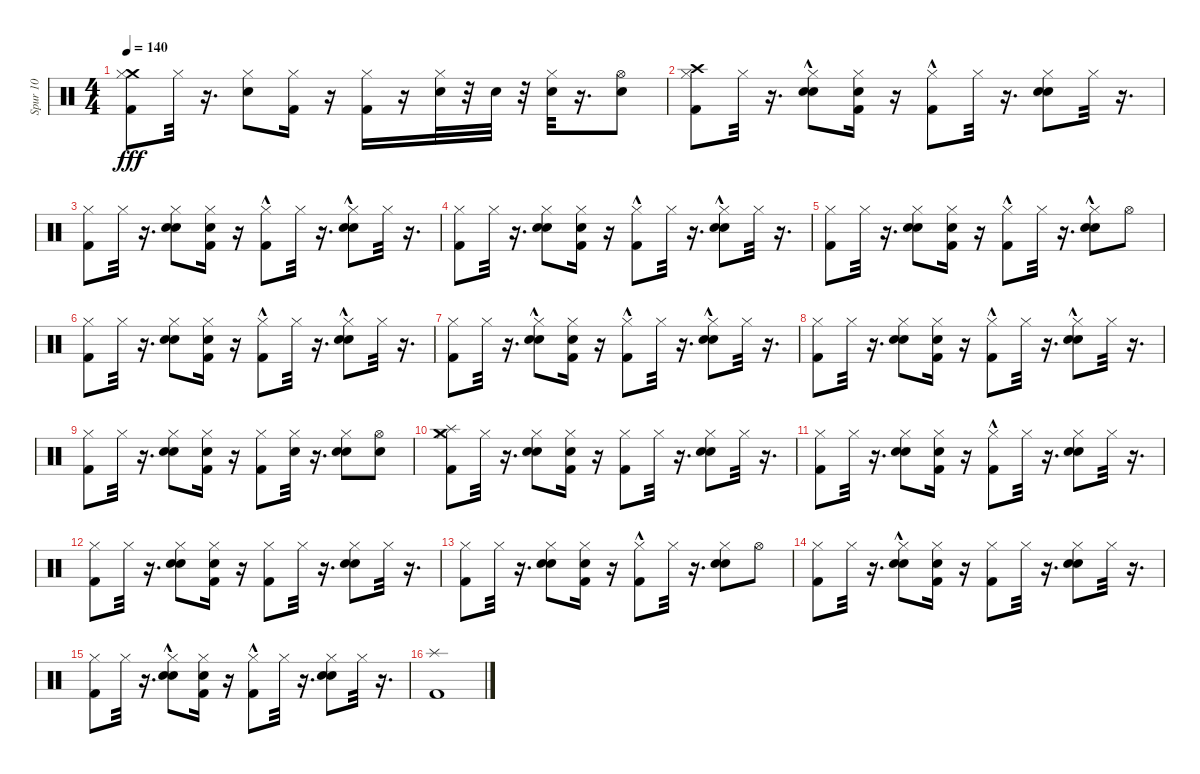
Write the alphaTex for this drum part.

\track ("Spur 10" "Spur 10") {instrument percussion}
\staff {score}
\articulation defaults
\ts (4 4)
\tempo 140
\clef neutral
\ks c
("Kick (hit) 2" "Crash medium (hit)" "Hi-Hat (closed)").8{dy fff} "Hi-Hat (closed)".32 r.16{d} ("Snare (hit) 2" "Hi-Hat (closed)").8 ("Kick (hit) 2" "Hi-Hat (closed)").16 r.16 ("Kick (hit) 2" "Hi-Hat (closed)").16 r.16 ("Snare (hit) 2" "Hi-Hat (closed)").32 r.32 "Snare (hit) 2".32 r.32 ("Snare (hit) 2" "Hi-Hat (closed)").32 r.16{d} ("Snare (hit) 2" "Hi-Hat (open)").8 |
("Kick (hit) 2" "Crash high (hit)" "Hi-Hat (closed)").8 "Hi-Hat (closed)".32 r.16{d} ("Snare (hit) 2"{hac} "Hand Clap (hit)" "Hi-Hat (closed)").8 ("Kick (hit) 2" "Hand Clap (hit)" "Hi-Hat (closed)").16 r.16 ("Kick (hit) 2"{hac} "Hi-Hat (closed)").8 "Hi-Hat (closed)".32 r.16{d} ("Hand Clap (hit)" "Snare (hit) 2" "Hi-Hat (closed)").8 "Hi-Hat (closed)".32 r.16{d} |
("Kick (hit) 2" "Hi-Hat (closed)").8 "Hi-Hat (closed)".32 r.16{d} ("Hand Clap (hit)" "Snare (hit) 2" "Hi-Hat (closed)").8 ("Hand Clap (hit)" "Kick (hit) 2" "Hi-Hat (closed)").16 r.16 ("Kick (hit) 2"{hac} "Hi-Hat (closed)").8 "Hi-Hat (closed)".32 r.16{d} ("Snare (hit) 2" "Hand Clap (hit)"{hac} "Hi-Hat (closed)").8 "Hi-Hat (closed)".32 r.16{d} |
("Kick (hit) 2" "Hi-Hat (closed)").8 "Hi-Hat (closed)".32 r.16{d} ("Snare (hit) 2" "Hand Clap (hit)" "Hi-Hat (closed)").8 ("Hand Clap (hit)" "Kick (hit) 2" "Hi-Hat (closed)").16 r.16 ("Kick (hit) 2"{hac} "Hi-Hat (closed)").8 "Hi-Hat (closed)".32 r.16{d} ("Snare (hit) 2" "Hand Clap (hit)"{hac} "Hi-Hat (closed)").8 "Hi-Hat (closed)".32 r.16{d} |
("Kick (hit) 2" "Hi-Hat (closed)").8 "Hi-Hat (closed)".32 r.16{d} ("Hand Clap (hit)" "Snare (hit) 2" "Hi-Hat (closed)").8 ("Hand Clap (hit)" "Kick (hit) 2" "Hi-Hat (closed)").16 r.16 ("Kick (hit) 2"{hac} "Hi-Hat (closed)").8 "Hi-Hat (closed)".32 r.16{d} ("Snare (hit) 2" "Hand Clap (hit)"{hac} "Hi-Hat (closed)").8 "Hi-Hat (open)".8 |
("Kick (hit) 2" "Hi-Hat (closed)").8 "Hi-Hat (closed)".32 r.16{d} ("Snare (hit) 2" "Hand Clap (hit)" "Hi-Hat (closed)").8 ("Kick (hit) 2" "Hand Clap (hit)" "Hi-Hat (closed)").16 r.16 ("Kick (hit) 2"{hac} "Hi-Hat (closed)").8 "Hi-Hat (closed)".32 r.16{d} ("Snare (hit) 2" "Hand Clap (hit)"{hac} "Hi-Hat (closed)").8 "Hi-Hat (closed)".32 r.16{d} |
("Kick (hit) 2" "Hi-Hat (closed)").8 "Hi-Hat (closed)".32 r.16{d} ("Hand Clap (hit)" "Snare (hit) 2"{hac} "Hi-Hat (closed)").8 ("Hand Clap (hit)" "Kick (hit) 2" "Hi-Hat (closed)").16 r.16 ("Kick (hit) 2"{hac} "Hi-Hat (closed)").8 "Hi-Hat (closed)".32 r.16{d} ("Snare (hit) 2" "Hand Clap (hit)"{hac} "Hi-Hat (closed)").8 "Hi-Hat (closed)".32 r.16{d} |
("Kick (hit) 2" "Hi-Hat (closed)").8 "Hi-Hat (closed)".32 r.16{d} ("Snare (hit) 2" "Hand Clap (hit)" "Hi-Hat (closed)").8 ("Kick (hit) 2" "Hand Clap (hit)" "Hi-Hat (closed)").16 r.16 ("Kick (hit) 2"{hac} "Hi-Hat (closed)").8 "Hi-Hat (closed)".32 r.16{d} ("Snare (hit) 2" "Hand Clap (hit)"{hac} "Hi-Hat (closed)").8 "Hi-Hat (closed)".32 r.16{d} |
("Kick (hit) 2" "Hi-Hat (closed)").8 "Hi-Hat (closed)".32 r.16{d} ("Hand Clap (hit)" "Snare (hit) 2" "Hi-Hat (closed)").8 ("Hand Clap (hit)" "Kick (hit) 2" "Hi-Hat (closed)").16 r.16 ("Kick (hit) 2" "Hi-Hat (closed)").8 ("Snare (hit) 2" "Hi-Hat (closed)").32 r.16{d} ("Hand Clap (hit)" "Snare (hit) 2" "Hi-Hat (closed)").8 ("Snare (hit) 2" "Hi-Hat (open)").8 |
("Kick (hit) 2" "Crash medium (hit)" "Splash (hit)" "Hi-Hat (closed)").8 "Hi-Hat (closed)".32 r.16{d} ("Snare (hit) 2" "Hand Clap (hit)" "Hi-Hat (closed)").8 ("Hand Clap (hit)" "Kick (hit) 2" "Hi-Hat (closed)").16 r.16 ("Kick (hit) 2" "Hi-Hat (closed)").8 "Hi-Hat (closed)".32 r.16{d} ("Hand Clap (hit)" "Snare (hit) 2" "Hi-Hat (closed)").8 "Hi-Hat (closed)".32 r.16{d} |
("Kick (hit) 2" "Hi-Hat (closed)").8 "Hi-Hat (closed)".32 r.16{d} ("Hand Clap (hit)" "Snare (hit) 2" "Hi-Hat (closed)").8 ("Hand Clap (hit)" "Kick (hit) 2" "Hi-Hat (closed)").16 r.16 ("Kick (hit) 2"{hac} "Hi-Hat (closed)").8 "Hi-Hat (closed)".32 r.16{d} ("Snare (hit) 2" "Hand Clap (hit)" "Hi-Hat (closed)").8 "Hi-Hat (closed)".32 r.16{d} |
("Kick (hit) 2" "Hi-Hat (closed)").8 "Hi-Hat (closed)".32 r.16{d} ("Hand Clap (hit)" "Snare (hit) 2" "Hi-Hat (closed)").8 ("Hand Clap (hit)" "Kick (hit) 2" "Hi-Hat (closed)").16 r.16 ("Kick (hit) 2" "Hi-Hat (closed)").8 "Hi-Hat (closed)".32 r.16{d} ("Hand Clap (hit)" "Snare (hit) 2" "Hi-Hat (closed)").8 "Hi-Hat (closed)".32 r.16{d} |
("Kick (hit) 2" "Hi-Hat (closed)").8 "Hi-Hat (closed)".32 r.16{d} ("Hand Clap (hit)" "Snare (hit) 2" "Hi-Hat (closed)").8 ("Hand Clap (hit)" "Kick (hit) 2" "Hi-Hat (closed)").16 r.16 ("Kick (hit) 2"{hac} "Hi-Hat (closed)").8 "Hi-Hat (closed)".32 r.16{d} ("Snare (hit) 2" "Hand Clap (hit)" "Hi-Hat (closed)").8 "Hi-Hat (open)".8 |
("Kick (hit) 2" "Hi-Hat (closed)").8 "Hi-Hat (closed)".32 r.16{d} ("Hand Clap (hit)" "Snare (hit) 2"{hac} "Hi-Hat (closed)").8 ("Hand Clap (hit)" "Kick (hit) 2" "Hi-Hat (closed)").16 r.16 ("Kick (hit) 2" "Hi-Hat (closed)").8 "Hi-Hat (closed)".32 r.16{d} ("Hand Clap (hit)" "Snare (hit) 2" "Hi-Hat (closed)").8 "Hi-Hat (closed)".32 r.16{d} |
("Kick (hit) 2" "Hi-Hat (closed)").8 "Hi-Hat (closed)".32 r.16{d} ("Hand Clap (hit)" "Snare (hit) 2"{hac} "Hi-Hat (closed)").8 ("Hand Clap (hit)" "Kick (hit) 2" "Hi-Hat (closed)").16 r.16 ("Kick (hit) 2"{hac} "Hi-Hat (closed)").8 "Hi-Hat (closed)".32 r.16{d} ("Snare (hit) 2" "Hand Clap (hit)" "Hi-Hat (closed)").8 "Hi-Hat (closed)".32 r.16{d} |
("Splash (hit)" "Kick (hit) 2").1
